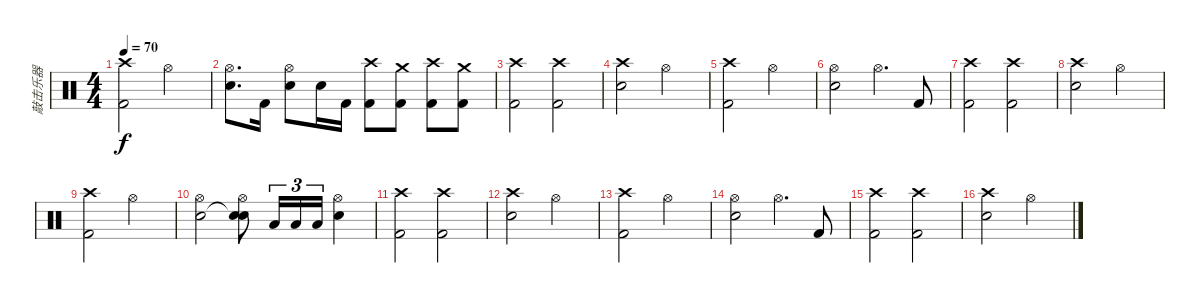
\track ("敲击乐器" "敲击乐器") {instrument percussion}
\staff {score}
\articulation defaults
\ts (4 4)
\tempo 70
\clef neutral
\ks c
("Kick (hit) 2" "Crash high (hit)").2{dy f} "Hi-Hat (open)".2 |
("Hi-Hat (open)" "Snare (hit) 2").8{d} "Kick (hit) 2".16 ("Hi-Hat (open)" "Snare (hit) 2").8 "Snare (hit) 2".16 "Kick (hit) 2".16 ("Crash high (hit)" "Kick (hit) 2").8 ("Crash medium (hit)" "Kick (hit) 2").8 ("Crash high (hit)" "Kick (hit) 2").8 ("Crash medium (hit)" "Kick (hit) 2").8 |
("Crash high (hit)" "Kick (hit) 2").2 ("Crash high (hit)" "Kick (hit) 2").2 |
("Crash high (hit)" "Snare (hit) 2").2 "Hi-Hat (open)".2 |
("Kick (hit) 2" "Crash high (hit)").2 "Hi-Hat (open)".2 |
("Hi-Hat (open)" "Snare (hit) 2").2 "Hi-Hat (open)".4{d} "Kick (hit) 2".8 |
("Crash high (hit)" "Kick (hit) 2").2 ("Crash high (hit)" "Kick (hit) 2").2 |
("Crash high (hit)" "Snare (hit) 2").2 "Hi-Hat (open)".2 |
("Kick (hit) 2" "Crash high (hit)").2 "Hi-Hat (open)".2 |
("Hi-Hat (open)" "Snare (hit) 2").2 ("Hi-Hat (open)" "Snare (hit)"{t} "Snare (hit)").8 "Low Tom (hit)".16{tu (3 2)} "Low Tom (hit)".16{tu (3 2)} "Low Tom (hit)".16{tu (3 2)} ("Hi-Hat (open)" "Snare (hit) 2").4 |
("Crash high (hit)" "Kick (hit) 2").2 ("Crash high (hit)" "Kick (hit) 2").2 |
("Crash high (hit)" "Snare (hit) 2").2 "Hi-Hat (open)".2 |
("Kick (hit) 2" "Crash high (hit)").2 "Hi-Hat (open)".2 |
("Hi-Hat (open)" "Snare (hit) 2").2 "Hi-Hat (open)".4{d} "Kick (hit) 2".8 |
("Crash high (hit)" "Kick (hit) 2").2 ("Crash high (hit)" "Kick (hit) 2").2 |
("Crash high (hit)" "Snare (hit) 2").2 "Hi-Hat (open)".2
